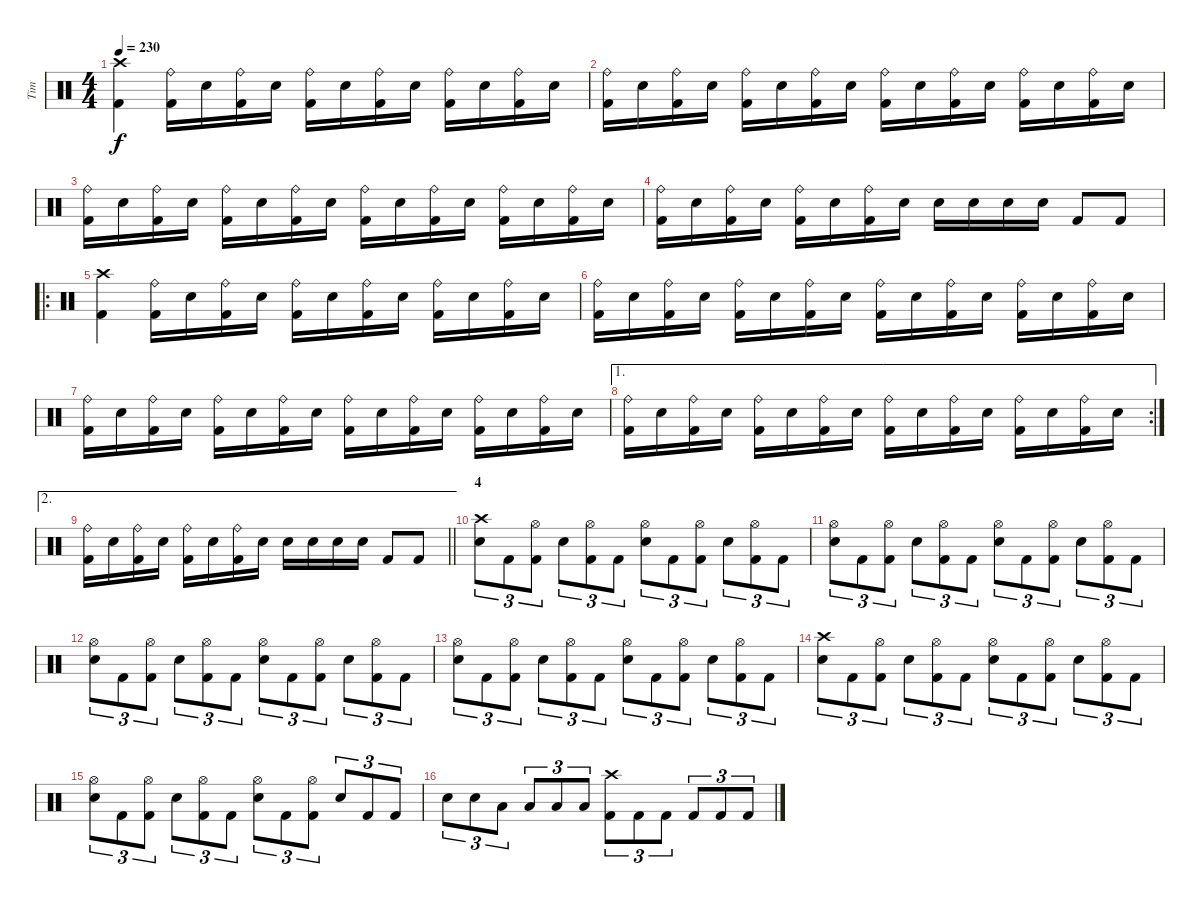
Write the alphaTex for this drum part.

\track ("Tim" "Tim") {instrument percussion}
\staff {score}
\articulation defaults
\ts (4 4)
\tempo 230
\clef neutral
\ks c
("Crash high (hit)" "Kick (hit) 2").4{dy f} ("Ride (bell)" "Kick (hit) 2").16 "Snare (hit) 2".16 ("Ride (bell)" "Kick (hit) 2").16 "Snare (hit) 2".16 ("Ride (bell)" "Kick (hit) 2").16 "Snare (hit) 2".16 ("Ride (bell)" "Kick (hit) 2").16 "Snare (hit) 2".16 ("Ride (bell)" "Kick (hit) 2").16 "Snare (hit) 2".16 ("Ride (bell)" "Kick (hit) 2").16 "Snare (hit) 2".16 |
("Ride (bell)" "Kick (hit) 2").16 "Snare (hit) 2".16 ("Ride (bell)" "Kick (hit) 2").16 "Snare (hit) 2".16 ("Ride (bell)" "Kick (hit) 2").16 "Snare (hit) 2".16 ("Ride (bell)" "Kick (hit) 2").16 "Snare (hit) 2".16 ("Ride (bell)" "Kick (hit) 2").16 "Snare (hit) 2".16 ("Ride (bell)" "Kick (hit) 2").16 "Snare (hit) 2".16 ("Ride (bell)" "Kick (hit) 2").16 "Snare (hit) 2".16 ("Ride (bell)" "Kick (hit) 2").16 "Snare (hit) 2".16 |
("Ride (bell)" "Kick (hit) 2").16 "Snare (hit) 2".16 ("Ride (bell)" "Kick (hit) 2").16 "Snare (hit) 2".16 ("Ride (bell)" "Kick (hit) 2").16 "Snare (hit) 2".16 ("Ride (bell)" "Kick (hit) 2").16 "Snare (hit) 2".16 ("Ride (bell)" "Kick (hit) 2").16 "Snare (hit) 2".16 ("Ride (bell)" "Kick (hit) 2").16 "Snare (hit) 2".16 ("Ride (bell)" "Kick (hit) 2").16 "Snare (hit) 2".16 ("Ride (bell)" "Kick (hit) 2").16 "Snare (hit) 2".16 |
("Ride (bell)" "Kick (hit) 2").16 "Snare (hit) 2".16 ("Ride (bell)" "Kick (hit) 2").16 "Snare (hit) 2".16 ("Ride (bell)" "Kick (hit) 2").16 "Snare (hit) 2".16 ("Ride (bell)" "Kick (hit) 2").16 "Snare (hit) 2".16 "Snare (hit) 2".16 "Snare (hit) 2".16 "Snare (hit) 2".16 "Snare (hit) 2".16 "Kick (hit) 2".8 "Kick (hit) 2".8 |
\ro
("Crash high (hit)" "Kick (hit) 2").4 ("Ride (bell)" "Kick (hit) 2").16 "Snare (hit) 2".16 ("Ride (bell)" "Kick (hit) 2").16 "Snare (hit) 2".16 ("Ride (bell)" "Kick (hit) 2").16 "Snare (hit) 2".16 ("Ride (bell)" "Kick (hit) 2").16 "Snare (hit) 2".16 ("Ride (bell)" "Kick (hit) 2").16 "Snare (hit) 2".16 ("Ride (bell)" "Kick (hit) 2").16 "Snare (hit) 2".16 |
("Ride (bell)" "Kick (hit) 2").16 "Snare (hit) 2".16 ("Ride (bell)" "Kick (hit) 2").16 "Snare (hit) 2".16 ("Ride (bell)" "Kick (hit) 2").16 "Snare (hit) 2".16 ("Ride (bell)" "Kick (hit) 2").16 "Snare (hit) 2".16 ("Ride (bell)" "Kick (hit) 2").16 "Snare (hit) 2".16 ("Ride (bell)" "Kick (hit) 2").16 "Snare (hit) 2".16 ("Ride (bell)" "Kick (hit) 2").16 "Snare (hit) 2".16 ("Ride (bell)" "Kick (hit) 2").16 "Snare (hit) 2".16 |
("Ride (bell)" "Kick (hit) 2").16 "Snare (hit) 2".16 ("Ride (bell)" "Kick (hit) 2").16 "Snare (hit) 2".16 ("Ride (bell)" "Kick (hit) 2").16 "Snare (hit) 2".16 ("Ride (bell)" "Kick (hit) 2").16 "Snare (hit) 2".16 ("Ride (bell)" "Kick (hit) 2").16 "Snare (hit) 2".16 ("Ride (bell)" "Kick (hit) 2").16 "Snare (hit) 2".16 ("Ride (bell)" "Kick (hit) 2").16 "Snare (hit) 2".16 ("Ride (bell)" "Kick (hit) 2").16 "Snare (hit) 2".16 |
\ae 1
\rc 2
("Ride (bell)" "Kick (hit) 2").16 "Snare (hit) 2".16 ("Ride (bell)" "Kick (hit) 2").16 "Snare (hit) 2".16 ("Ride (bell)" "Kick (hit) 2").16 "Snare (hit) 2".16 ("Ride (bell)" "Kick (hit) 2").16 "Snare (hit) 2".16 ("Ride (bell)" "Kick (hit) 2").16 "Snare (hit) 2".16 ("Ride (bell)" "Kick (hit) 2").16 "Snare (hit) 2".16 ("Ride (bell)" "Kick (hit) 2").16 "Snare (hit) 2".16 ("Ride (bell)" "Kick (hit) 2").16 "Snare (hit) 2".16 |
\ae 2
\barLineRight lightlight
("Ride (bell)" "Kick (hit) 2").16 "Snare (hit) 2".16 ("Ride (bell)" "Kick (hit) 2").16 "Snare (hit) 2".16 ("Ride (bell)" "Kick (hit) 2").16 "Snare (hit) 2".16 ("Ride (bell)" "Kick (hit) 2").16 "Snare (hit) 2".16 "Snare (hit) 2".16 "Snare (hit) 2".16 "Snare (hit) 2".16 "Snare (hit) 2".16 "Kick (hit) 2".8 "Kick (hit) 2".8 |
\section ("" "4")
("Crash high (hit)" "Snare (hit) 2").8{tu (3 2)} "Kick (hit) 2".8{tu (3 2)} ("Hi-Hat (open)" "Kick (hit) 2").8{tu (3 2)} "Snare (hit) 2".8{tu (3 2)} ("Hi-Hat (open)" "Kick (hit) 2").8{tu (3 2)} "Kick (hit) 2".8{tu (3 2)} ("Hi-Hat (open)" "Snare (hit) 2").8{tu (3 2)} "Kick (hit) 2".8{tu (3 2)} ("Hi-Hat (open)" "Kick (hit) 2").8{tu (3 2)} "Snare (hit) 2".8{tu (3 2)} ("Hi-Hat (open)" "Kick (hit) 2").8{tu (3 2)} "Kick (hit) 2".8{tu (3 2)} |
("Hi-Hat (open)" "Snare (hit) 2").8{tu (3 2)} "Kick (hit) 2".8{tu (3 2)} ("Hi-Hat (open)" "Kick (hit) 2").8{tu (3 2)} "Snare (hit) 2".8{tu (3 2)} ("Hi-Hat (open)" "Kick (hit) 2").8{tu (3 2)} "Kick (hit) 2".8{tu (3 2)} ("Hi-Hat (open)" "Snare (hit) 2").8{tu (3 2)} "Kick (hit) 2".8{tu (3 2)} ("Hi-Hat (open)" "Kick (hit) 2").8{tu (3 2)} "Snare (hit) 2".8{tu (3 2)} ("Hi-Hat (open)" "Kick (hit) 2").8{tu (3 2)} "Kick (hit) 2".8{tu (3 2)} |
("Hi-Hat (open)" "Snare (hit) 2").8{tu (3 2)} "Kick (hit) 2".8{tu (3 2)} ("Hi-Hat (open)" "Kick (hit) 2").8{tu (3 2)} "Snare (hit) 2".8{tu (3 2)} ("Hi-Hat (open)" "Kick (hit) 2").8{tu (3 2)} "Kick (hit) 2".8{tu (3 2)} ("Hi-Hat (open)" "Snare (hit) 2").8{tu (3 2)} "Kick (hit) 2".8{tu (3 2)} ("Hi-Hat (open)" "Kick (hit) 2").8{tu (3 2)} "Snare (hit) 2".8{tu (3 2)} ("Hi-Hat (open)" "Kick (hit) 2").8{tu (3 2)} "Kick (hit) 2".8{tu (3 2)} |
("Hi-Hat (open)" "Snare (hit) 2").8{tu (3 2)} "Kick (hit) 2".8{tu (3 2)} ("Hi-Hat (open)" "Kick (hit) 2").8{tu (3 2)} "Snare (hit) 2".8{tu (3 2)} ("Hi-Hat (open)" "Kick (hit) 2").8{tu (3 2)} "Kick (hit) 2".8{tu (3 2)} ("Hi-Hat (open)" "Snare (hit) 2").8{tu (3 2)} "Kick (hit) 2".8{tu (3 2)} ("Hi-Hat (open)" "Kick (hit) 2").8{tu (3 2)} "Snare (hit) 2".8{tu (3 2)} ("Hi-Hat (open)" "Kick (hit) 2").8{tu (3 2)} "Kick (hit) 2".8{tu (3 2)} |
("Crash high (hit)" "Snare (hit) 2").8{tu (3 2)} "Kick (hit) 2".8{tu (3 2)} ("Hi-Hat (open)" "Kick (hit) 2").8{tu (3 2)} "Snare (hit) 2".8{tu (3 2)} ("Hi-Hat (open)" "Kick (hit) 2").8{tu (3 2)} "Kick (hit) 2".8{tu (3 2)} ("Hi-Hat (open)" "Snare (hit) 2").8{tu (3 2)} "Kick (hit) 2".8{tu (3 2)} ("Hi-Hat (open)" "Kick (hit) 2").8{tu (3 2)} "Snare (hit) 2".8{tu (3 2)} ("Hi-Hat (open)" "Kick (hit) 2").8{tu (3 2)} "Kick (hit) 2".8{tu (3 2)} |
("Hi-Hat (open)" "Snare (hit) 2").8{tu (3 2)} "Kick (hit) 2".8{tu (3 2)} ("Hi-Hat (open)" "Kick (hit) 2").8{tu (3 2)} "Snare (hit) 2".8{tu (3 2)} ("Hi-Hat (open)" "Kick (hit) 2").8{tu (3 2)} "Kick (hit) 2".8{tu (3 2)} ("Hi-Hat (open)" "Snare (hit) 2").8{tu (3 2)} "Kick (hit) 2".8{tu (3 2)} ("Hi-Hat (open)" "Kick (hit) 2").8{tu (3 2)} "Snare (hit) 2".8{tu (3 2)} "Kick (hit) 2".8{tu (3 2)} "Kick (hit) 2".8{tu (3 2)} |
"Snare (hit) 2".8{tu (3 2)} "Snare (hit) 2".8{tu (3 2)} "Low Tom (hit)".8{tu (3 2)} "Low Tom (hit)".8{tu (3 2)} "Low Floor Tom (hit)".8{tu (3 2)} "Low Floor Tom (hit)".8{tu (3 2)} ("Crash high (hit)" "Kick (hit) 2").8{tu (3 2)} "Kick (hit) 2".8{tu (3 2)} "Kick (hit) 2".8{tu (3 2)} "Kick (hit) 2".8{tu (3 2)} "Kick (hit) 2".8{tu (3 2)} "Kick (hit) 2".8{tu (3 2)}
